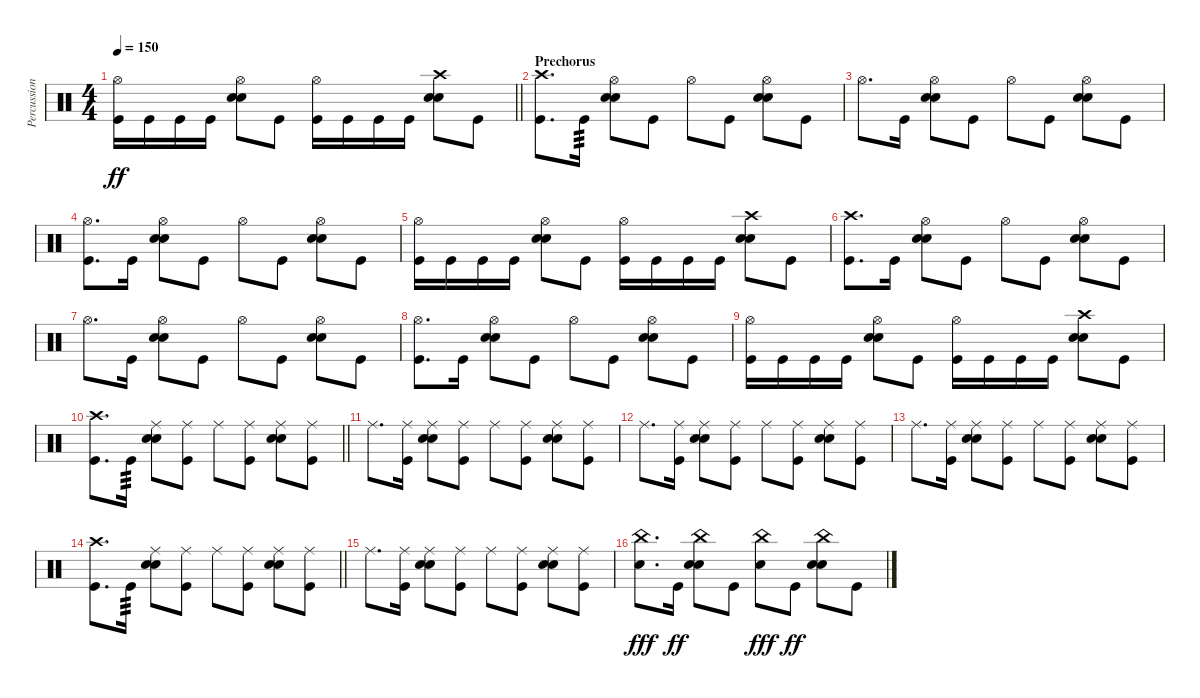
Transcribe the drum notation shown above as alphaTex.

\track ("Percussion" "Percussion") {instrument percussion}
\staff {score}
\articulation defaults
\ts (4 4)
\tempo 150
\clef neutral
\barLineRight lightlight
\ks c
("Hi-Hat (open)" "Kick (hit)").16{dy ff} "Kick (hit)".16 "Kick (hit)".16 "Kick (hit)".16 ("Hi-Hat (open)" "Snare (hit) 2" "Electric Snare (hit)").8 "Kick (hit)".8 ("Hi-Hat (open)" "Kick (hit)").16 "Kick (hit)".16 "Kick (hit)".16 "Kick (hit)".16 ("Crash high (hit)" "Snare (hit) 2" "Electric Snare (hit)").8 "Kick (hit)".8 |
\section ("" "Prechorus")
("Crash high (hit)" "Kick (hit)").8{d} "Kick (hit)".16{tp 3} ("Hi-Hat (open)" "Snare (hit) 2" "Electric Snare (hit)").8 "Kick (hit)".8 "Hi-Hat (open)".8 "Kick (hit)".8 ("Hi-Hat (open)" "Snare (hit) 2" "Electric Snare (hit)").8 "Kick (hit)".8 |
"Hi-Hat (open)".8{d} "Kick (hit)".16 ("Hi-Hat (open)" "Snare (hit) 2" "Electric Snare (hit)").8 "Kick (hit)".8 "Hi-Hat (open)".8 "Kick (hit)".8 ("Hi-Hat (open)" "Snare (hit) 2" "Electric Snare (hit)").8 "Kick (hit)".8 |
("Hi-Hat (open)" "Kick (hit)").8{d} "Kick (hit)".16 ("Hi-Hat (open)" "Snare (hit) 2" "Electric Snare (hit)").8 "Kick (hit)".8 "Hi-Hat (open)".8 "Kick (hit)".8 ("Hi-Hat (open)" "Snare (hit) 2" "Electric Snare (hit)").8 "Kick (hit)".8 |
("Hi-Hat (open)" "Kick (hit)").16 "Kick (hit)".16 "Kick (hit)".16 "Kick (hit)".16 ("Hi-Hat (open)" "Snare (hit) 2" "Electric Snare (hit)").8 "Kick (hit)".8 ("Hi-Hat (open)" "Kick (hit)").16 "Kick (hit)".16 "Kick (hit)".16 "Kick (hit)".16 ("Crash high (hit)" "Snare (hit) 2" "Electric Snare (hit)").8 "Kick (hit)".8 |
("Crash high (hit)" "Kick (hit)").8{d} "Kick (hit)".16 ("Hi-Hat (open)" "Snare (hit) 2" "Electric Snare (hit)").8 "Kick (hit)".8 "Hi-Hat (open)".8 "Kick (hit)".8 ("Hi-Hat (open)" "Snare (hit) 2" "Electric Snare (hit)").8 "Kick (hit)".8 |
"Hi-Hat (open)".8{d} "Kick (hit)".16 ("Hi-Hat (open)" "Snare (hit) 2" "Electric Snare (hit)").8 "Kick (hit)".8 "Hi-Hat (open)".8 "Kick (hit)".8 ("Hi-Hat (open)" "Snare (hit) 2" "Electric Snare (hit)").8 "Kick (hit)".8 |
("Hi-Hat (open)" "Kick (hit)").8{d} "Kick (hit)".16 ("Hi-Hat (open)" "Snare (hit) 2" "Electric Snare (hit)").8 "Kick (hit)".8 "Hi-Hat (open)".8 "Kick (hit)".8 ("Hi-Hat (open)" "Snare (hit) 2" "Electric Snare (hit)").8 "Kick (hit)".8 |
("Hi-Hat (open)" "Kick (hit)").16 "Kick (hit)".16 "Kick (hit)".16 "Kick (hit)".16 ("Hi-Hat (open)" "Snare (hit) 2" "Electric Snare (hit)").8 "Kick (hit)".8 ("Hi-Hat (open)" "Kick (hit)").16 "Kick (hit)".16 "Kick (hit)".16 "Kick (hit)".16 ("Crash high (hit)" "Snare (hit) 2" "Electric Snare (hit)").8 "Kick (hit)".8 |
\barLineRight lightlight
("Crash high (hit)" "Kick (hit)").8{d} "Kick (hit)".16{tp 3} ("Ride (middle)" "Snare (hit) 2" "Electric Snare (hit)").8 ("Ride (middle)" "Kick (hit)").8 "Ride (middle)".8 ("Ride (middle)" "Kick (hit)").8 ("Ride (middle)" "Snare (hit) 2" "Electric Snare (hit)").8 ("Ride (middle)" "Kick (hit)").8 |
\section ("" "")
"Ride (middle)".8{d} ("Ride (middle)" "Kick (hit)").16 ("Ride (middle)" "Snare (hit) 2" "Electric Snare (hit)").8 ("Ride (middle)" "Kick (hit)").8 "Ride (middle)".8 ("Ride (middle)" "Kick (hit)").8 ("Ride (middle)" "Snare (hit) 2" "Electric Snare (hit)").8 ("Ride (middle)" "Kick (hit)").8 |
"Ride (middle)".8{d} ("Ride (middle)" "Kick (hit)").16 ("Ride (middle)" "Snare (hit) 2" "Electric Snare (hit)").8 ("Ride (middle)" "Kick (hit)").8 "Ride (middle)".8 ("Ride (middle)" "Kick (hit)").8 ("Ride (middle)" "Snare (hit) 2" "Electric Snare (hit)").8 ("Ride (middle)" "Kick (hit)").8 |
"Ride (middle)".8{d} ("Ride (middle)" "Kick (hit)").16 ("Ride (middle)" "Snare (hit) 2" "Electric Snare (hit)").8 ("Ride (middle)" "Kick (hit)").8 "Ride (middle)".8 ("Ride (middle)" "Kick (hit)").8 ("Ride (middle)" "Snare (hit) 2" "Electric Snare (hit)").8 ("Ride (middle)" "Kick (hit)").8 |
\barLineRight lightlight
("Crash high (hit)" "Kick (hit)").8{d} "Kick (hit)".16{tp 3} ("Ride (middle)" "Snare (hit) 2" "Electric Snare (hit)").8 ("Ride (middle)" "Kick (hit)").8 "Ride (middle)".8 ("Ride (middle)" "Kick (hit)").8 ("Ride (middle)" "Snare (hit) 2" "Electric Snare (hit)").8 ("Ride (middle)" "Kick (hit)").8 |
"Ride (middle)".8{d} ("Ride (middle)" "Kick (hit)").16 ("Ride (middle)" "Snare (hit) 2" "Electric Snare (hit)").8 ("Ride (middle)" "Kick (hit)").8 "Ride (middle)".8 ("Ride (middle)" "Kick (hit)").8 ("Ride (middle)" "Snare (hit) 2" "Electric Snare (hit)").8 ("Ride (middle)" "Kick (hit)").8 |
("China (hit)" "Electric Snare (hit)").8{d dy fff} "Kick (hit)".16{dy ff} ("China (hit)" "Snare (hit) 2" "Electric Snare (hit)").8 "Kick (hit)".8 ("China (hit)" "Electric Snare (hit)").8{dy fff} "Kick (hit)".8{dy ff} ("China (hit)" "Snare (hit) 2" "Electric Snare (hit)").8 "Kick (hit)".8
